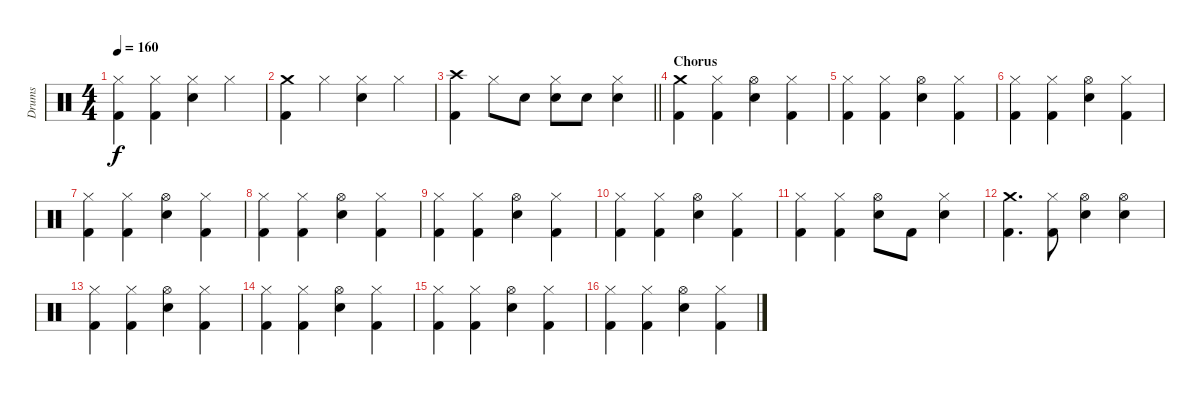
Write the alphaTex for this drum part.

\track ("Drums" "Drums") {instrument percussion}
\staff {score}
\articulation defaults
\ts (4 4)
\tempo 160
\clef neutral
\ks c
("Hi-Hat (closed)" "Kick (hit) 2").4{dy f} ("Hi-Hat (closed)" "Kick (hit) 2").4 ("Hi-Hat (closed)" "Snare (hit) 2").4 "Hi-Hat (closed)".4 |
("Crash medium (hit)" "Kick (hit) 2").4 "Hi-Hat (closed)".4 ("Hi-Hat (closed)" "Snare (hit) 2").4 "Hi-Hat (closed)".4 |
\barLineRight lightlight
("Crash high (hit)" "Kick (hit) 2").4 "Hi-Hat (closed)".8 "Snare (hit) 2".8 ("Hi-Hat (closed)" "Snare (hit) 2").8 "Snare (hit) 2".8 ("Hi-Hat (closed)" "Snare (hit) 2").4 |
\section ("" "Chorus")
("Crash medium (hit)" "Kick (hit) 2").4 ("Hi-Hat (closed)" "Kick (hit) 2").4 ("Hi-Hat (open)" "Snare (hit) 2").4 ("Hi-Hat (closed)" "Kick (hit) 2").4 |
("Hi-Hat (closed)" "Kick (hit) 2").4 ("Hi-Hat (closed)" "Kick (hit) 2").4 ("Hi-Hat (open)" "Snare (hit) 2").4 ("Hi-Hat (closed)" "Kick (hit) 2").4 |
("Hi-Hat (closed)" "Kick (hit) 2").4 ("Hi-Hat (closed)" "Kick (hit) 2").4 ("Hi-Hat (open)" "Snare (hit) 2").4 ("Hi-Hat (closed)" "Kick (hit) 2").4 |
("Hi-Hat (closed)" "Kick (hit) 2").4 ("Hi-Hat (closed)" "Kick (hit) 2").4 ("Hi-Hat (open)" "Snare (hit) 2").4 ("Hi-Hat (closed)" "Kick (hit) 2").4 |
("Hi-Hat (closed)" "Kick (hit) 2").4 ("Hi-Hat (closed)" "Kick (hit) 2").4 ("Hi-Hat (open)" "Snare (hit) 2").4 ("Hi-Hat (closed)" "Kick (hit) 2").4 |
("Hi-Hat (closed)" "Kick (hit) 2").4 ("Hi-Hat (closed)" "Kick (hit) 2").4 ("Hi-Hat (open)" "Snare (hit) 2").4 ("Hi-Hat (closed)" "Kick (hit) 2").4 |
("Hi-Hat (closed)" "Kick (hit) 2").4 ("Hi-Hat (closed)" "Kick (hit) 2").4 ("Hi-Hat (open)" "Snare (hit) 2").4 ("Hi-Hat (closed)" "Kick (hit) 2").4 |
("Hi-Hat (closed)" "Kick (hit) 2").4 ("Hi-Hat (closed)" "Kick (hit) 2").4 ("Hi-Hat (open)" "Snare (hit) 2").8 "Kick (hit) 2".8 ("Hi-Hat (closed)" "Snare (hit) 2").4 |
("Crash medium (hit)" "Kick (hit) 2").4{d} ("Hi-Hat (closed)" "Kick (hit) 2").8 ("Hi-Hat (open)" "Snare (hit) 2").4 ("Hi-Hat (open)" "Snare (hit) 2").4 |
("Hi-Hat (closed)" "Kick (hit) 2").4 ("Hi-Hat (closed)" "Kick (hit) 2").4 ("Hi-Hat (open)" "Snare (hit) 2").4 ("Hi-Hat (closed)" "Kick (hit) 2").4 |
("Hi-Hat (closed)" "Kick (hit) 2").4 ("Hi-Hat (closed)" "Kick (hit) 2").4 ("Hi-Hat (open)" "Snare (hit) 2").4 ("Hi-Hat (closed)" "Kick (hit) 2").4 |
("Hi-Hat (closed)" "Kick (hit) 2").4 ("Hi-Hat (closed)" "Kick (hit) 2").4 ("Hi-Hat (open)" "Snare (hit) 2").4 ("Hi-Hat (closed)" "Kick (hit) 2").4 |
("Hi-Hat (closed)" "Kick (hit) 2").4 ("Hi-Hat (closed)" "Kick (hit) 2").4 ("Hi-Hat (open)" "Snare (hit) 2").4 ("Hi-Hat (closed)" "Kick (hit) 2").4
